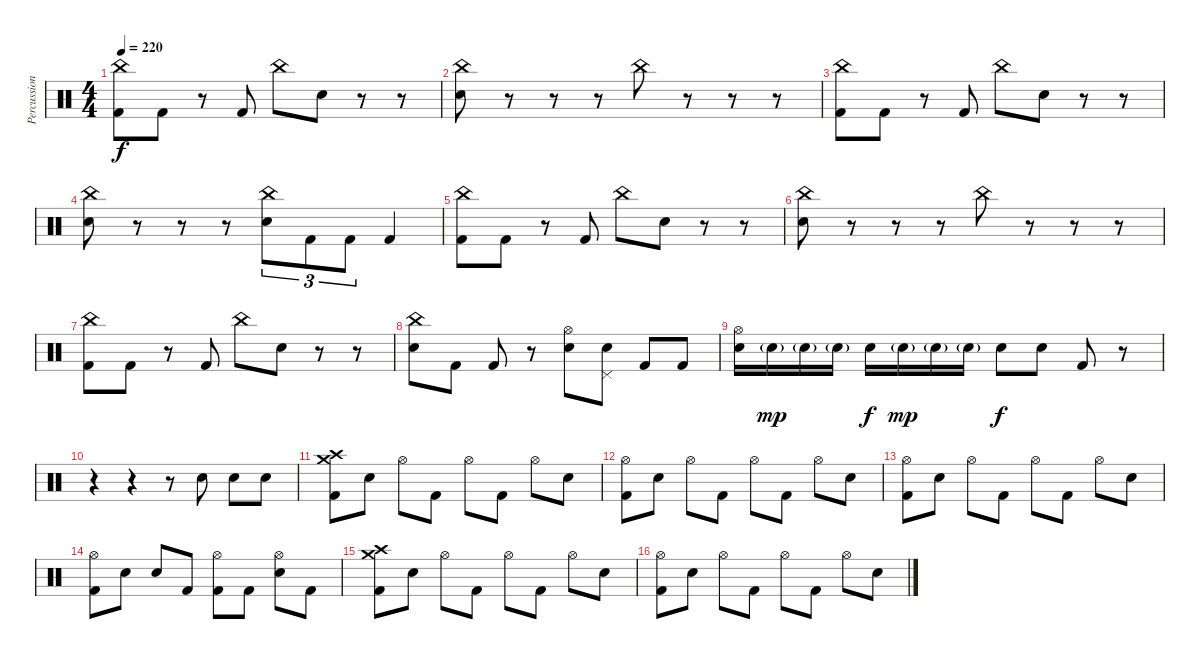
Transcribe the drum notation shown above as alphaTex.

\track ("Percussion" "Percussion") {instrument percussion}
\staff {score}
\articulation defaults
\ts (4 4)
\tempo 220
\clef neutral
\ks c
("China (hit)" "Kick (hit) 2").8{dy f} "Kick (hit) 2".8 r.8 "Kick (hit) 2".8 "China (hit)".8 "Electric Snare (hit)".8 r.8 r.8 |
("China (hit)" "Electric Snare (hit)").8 r.8 r.8 r.8 "China (hit)".8 r.8 r.8 r.8 |
("China (hit)" "Kick (hit) 2").8 "Kick (hit) 2".8 r.8 "Kick (hit) 2".8 "China (hit)".8 "Electric Snare (hit)".8 r.8 r.8 |
("China (hit)" "Electric Snare (hit)").8 r.8 r.8 r.8 ("China (hit)" "Electric Snare (hit)").8{tu (3 2)} "Kick (hit) 2".8{tu (3 2)} "Kick (hit) 2".8{tu (3 2)} "Kick (hit) 2".4 |
("China (hit)" "Kick (hit) 2").8 "Kick (hit) 2".8 r.8 "Kick (hit) 2".8 "China (hit)".8 "Electric Snare (hit)".8 r.8 r.8 |
("China (hit)" "Electric Snare (hit)").8 r.8 r.8 r.8 "China (hit)".8 r.8 r.8 r.8 |
("China (hit)" "Kick (hit) 2").8 "Kick (hit) 2".8 r.8 "Kick (hit) 2".8 "China (hit)".8 "Electric Snare (hit)".8 r.8 r.8 |
("China (hit)" "Electric Snare (hit)").8 "Kick (hit) 2".8 "Kick (hit) 2".8 r.8 ("Hi-Hat (open)" "Electric Snare (hit)").8 ("Pedal Hi-Hat (hit)" "Electric Snare (hit)").8 "Kick (hit) 2".8 "Kick (hit) 2".8 |
("Hi-Hat (open)" "Electric Snare (hit)").16 "Electric Snare (hit)"{g}.16{dy mp} "Electric Snare (hit)"{g}.16 "Electric Snare (hit)"{g}.16 "Electric Snare (hit)".16{dy f} "Electric Snare (hit)"{g}.16{dy mp} "Electric Snare (hit)"{g}.16 "Electric Snare (hit)"{g}.16 "Electric Snare (hit)".8{dy f} "Electric Snare (hit)".8 "Kick (hit) 2".8 r.8 |
r.4 r.4 r.8 "Electric Snare (hit)".8 "Electric Snare (hit)".8 "Electric Snare (hit)".8 |
("Crash high (hit)" "Crash medium (hit)" "Kick (hit) 2").8 "Electric Snare (hit)".8 "Hi-Hat (open)".8 "Kick (hit) 2".8 "Hi-Hat (open)".8 "Kick (hit) 2".8 "Hi-Hat (open)".8 "Electric Snare (hit)".8 |
("Hi-Hat (open)" "Kick (hit) 2").8 "Electric Snare (hit)".8 "Hi-Hat (open)".8 "Kick (hit) 2".8 "Hi-Hat (open)".8 "Kick (hit) 2".8 "Hi-Hat (open)".8 "Electric Snare (hit)".8 |
("Hi-Hat (open)" "Kick (hit) 2").8 "Electric Snare (hit)".8 "Hi-Hat (open)".8 "Kick (hit) 2".8 "Hi-Hat (open)".8 "Kick (hit) 2".8 "Hi-Hat (open)".8 "Electric Snare (hit)".8 |
("Hi-Hat (open)" "Kick (hit) 2").8 "Electric Snare (hit)".8 "Electric Snare (hit)".8 "Kick (hit) 2".8 ("Hi-Hat (open)" "Kick (hit) 2").8 "Kick (hit) 2".8 ("Hi-Hat (open)" "Electric Snare (hit)").8 "Kick (hit) 2".8 |
("Crash high (hit)" "Crash medium (hit)" "Kick (hit) 2").8 "Electric Snare (hit)".8 "Hi-Hat (open)".8 "Kick (hit) 2".8 "Hi-Hat (open)".8 "Kick (hit) 2".8 "Hi-Hat (open)".8 "Electric Snare (hit)".8 |
("Hi-Hat (open)" "Kick (hit) 2").8 "Electric Snare (hit)".8 "Hi-Hat (open)".8 "Kick (hit) 2".8 "Hi-Hat (open)".8 "Kick (hit) 2".8 "Hi-Hat (open)".8 "Electric Snare (hit)".8
